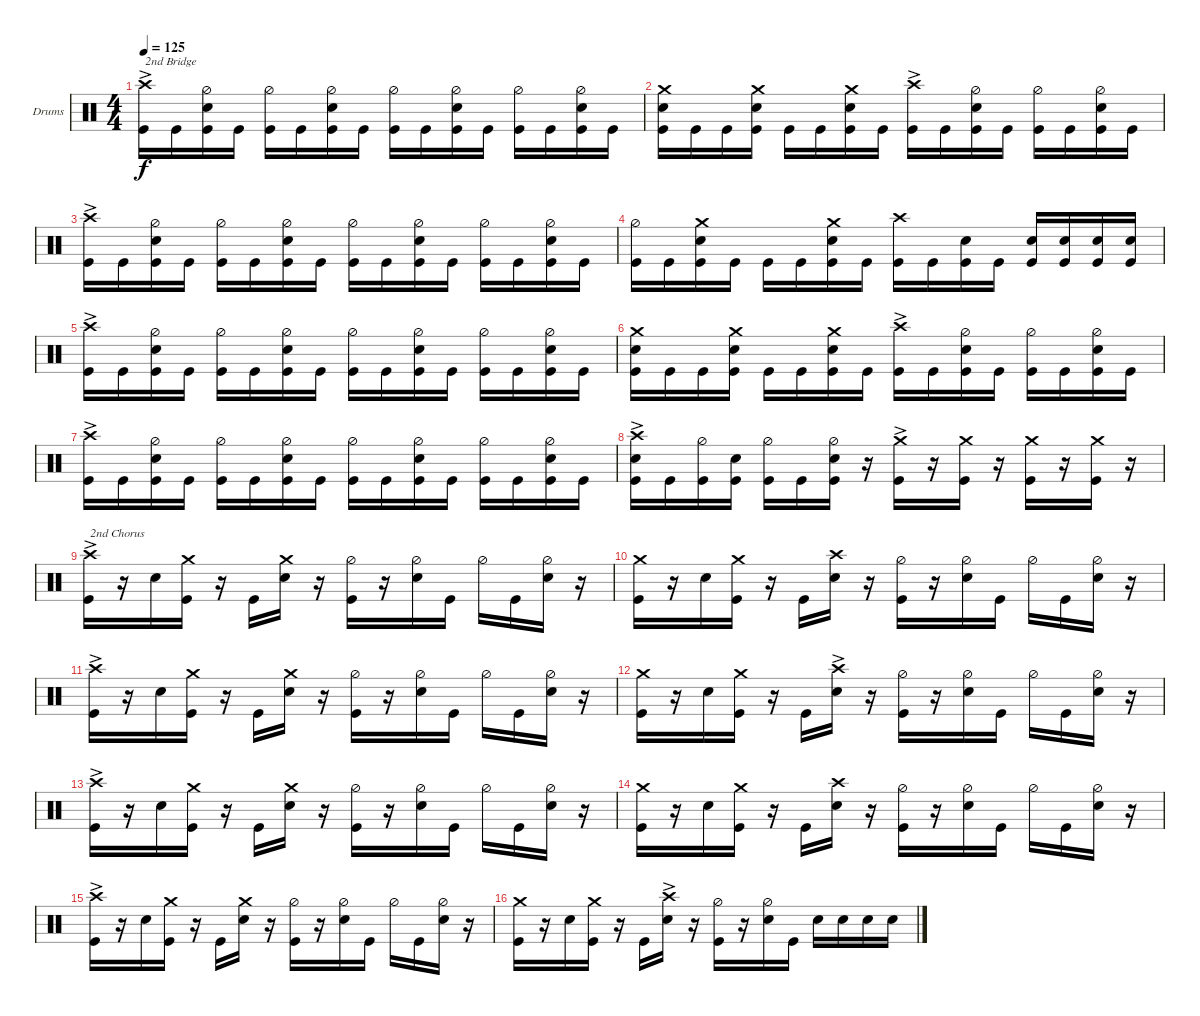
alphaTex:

\defaultSystemsLayout 4
\bracketExtendMode groupsimilarinstruments
\firstSystemTrackNameOrientation horizontal
\otherSystemsTrackNameOrientation horizontal
\track ("Lorenzo Milani" "Drums") {instrument percussion}
\staff {score}
\articulation defaults
\ts (4 4)
\tempo 125
\clef neutral
\ks c
("Kick (hit)"{ac} "Crash high (hit)"{ac}).16{txt "2nd Bridge" dy f} "Kick (hit)".16 ("Kick (hit)" "Snare (hit) 2" "Hi-Hat (half)").16 "Kick (hit)".16 ("Kick (hit)" "Hi-Hat (half)").16 "Kick (hit)".16 ("Kick (hit)" "Snare (hit) 2" "Hi-Hat (half)").16 "Kick (hit)".16 ("Kick (hit)" "Hi-Hat (half)").16 "Kick (hit)".16 ("Kick (hit)" "Snare (hit) 2" "Hi-Hat (half)").16 "Kick (hit)".16 ("Kick (hit)" "Hi-Hat (half)").16 "Kick (hit)".16 ("Kick (hit)" "Snare (hit) 2" "Hi-Hat (half)").16 "Kick (hit)".16 |
("Kick (hit)" "Crash medium (hit)" "Snare (hit) 2").16 "Kick (hit)".16 "Kick (hit)".16 ("Kick (hit)" "Crash medium (hit)" "Snare (hit) 2").16 "Kick (hit)".16 "Kick (hit)".16 ("Kick (hit)" "Crash medium (hit)" "Snare (hit) 2").16 "Kick (hit)".16 ("Kick (hit)"{ac} "Crash high (hit)"{ac}).16 "Kick (hit)".16 ("Kick (hit)" "Snare (hit) 2" "Hi-Hat (half)").16 "Kick (hit)".16 ("Kick (hit)" "Hi-Hat (half)").16 "Kick (hit)".16 ("Kick (hit)" "Snare (hit) 2" "Hi-Hat (half)").16 "Kick (hit)".16 |
("Kick (hit)"{ac} "Crash high (hit)"{ac}).16 "Kick (hit)".16 ("Kick (hit)" "Snare (hit) 2" "Hi-Hat (half)").16 "Kick (hit)".16 ("Kick (hit)" "Hi-Hat (half)").16 "Kick (hit)".16 ("Kick (hit)" "Snare (hit) 2" "Hi-Hat (half)").16 "Kick (hit)".16 ("Kick (hit)" "Hi-Hat (half)").16 "Kick (hit)".16 ("Kick (hit)" "Snare (hit) 2" "Hi-Hat (half)").16 "Kick (hit)".16 ("Kick (hit)" "Hi-Hat (half)").16 "Kick (hit)".16 ("Kick (hit)" "Snare (hit) 2" "Hi-Hat (half)").16 "Kick (hit)".16 |
("Kick (hit)" "Hi-Hat (half)").16 "Kick (hit)".16 ("Kick (hit)" "Snare (hit) 2" "Crash medium (hit)").16 "Kick (hit)".16 "Kick (hit)".16 "Kick (hit)".16 ("Kick (hit)" "Snare (hit) 2" "Crash medium (hit)").16 "Kick (hit)".16 ("Kick (hit)" "Crash high (hit)").16 "Kick (hit)".16 ("Kick (hit)" "Snare (hit) 2").16 "Kick (hit)".16 ("Kick (hit)" "Snare (hit) 2").16 ("Kick (hit)" "Snare (hit) 2").16 ("Kick (hit)" "Snare (hit) 2").16 ("Kick (hit)" "Snare (hit) 2").16 |
("Kick (hit)"{ac} "Crash high (hit)"{ac}).16 "Kick (hit)".16 ("Kick (hit)" "Snare (hit) 2" "Hi-Hat (half)").16 "Kick (hit)".16 ("Kick (hit)" "Hi-Hat (half)").16 "Kick (hit)".16 ("Kick (hit)" "Snare (hit) 2" "Hi-Hat (half)").16 "Kick (hit)".16 ("Kick (hit)" "Hi-Hat (half)").16 "Kick (hit)".16 ("Kick (hit)" "Snare (hit) 2" "Hi-Hat (half)").16 "Kick (hit)".16 ("Kick (hit)" "Hi-Hat (half)").16 "Kick (hit)".16 ("Kick (hit)" "Snare (hit) 2" "Hi-Hat (half)").16 "Kick (hit)".16 |
("Kick (hit)" "Crash medium (hit)" "Snare (hit) 2").16 "Kick (hit)".16 "Kick (hit)".16 ("Kick (hit)" "Crash medium (hit)" "Snare (hit) 2").16 "Kick (hit)".16 "Kick (hit)".16 ("Kick (hit)" "Crash medium (hit)" "Snare (hit) 2").16 "Kick (hit)".16 ("Kick (hit)"{ac} "Crash high (hit)"{ac}).16 "Kick (hit)".16 ("Kick (hit)" "Snare (hit) 2" "Hi-Hat (half)").16 "Kick (hit)".16 ("Kick (hit)" "Hi-Hat (half)").16 "Kick (hit)".16 ("Kick (hit)" "Snare (hit) 2" "Hi-Hat (half)").16 "Kick (hit)".16 |
("Kick (hit)"{ac} "Crash high (hit)"{ac}).16 "Kick (hit)".16 ("Kick (hit)" "Snare (hit) 2" "Hi-Hat (half)").16 "Kick (hit)".16 ("Kick (hit)" "Hi-Hat (half)").16 "Kick (hit)".16 ("Kick (hit)" "Snare (hit) 2" "Hi-Hat (half)").16 "Kick (hit)".16 ("Kick (hit)" "Hi-Hat (half)").16 "Kick (hit)".16 ("Kick (hit)" "Snare (hit) 2" "Hi-Hat (half)").16 "Kick (hit)".16 ("Kick (hit)" "Hi-Hat (half)").16 "Kick (hit)".16 ("Kick (hit)" "Snare (hit) 2" "Hi-Hat (half)").16 "Kick (hit)".16 |
("Crash high (hit)"{ac} "Snare (hit) 2" "Kick (hit)").16 "Kick (hit)".16 ("Kick (hit)" "Hi-Hat (half)").16 ("Snare (hit) 2" "Kick (hit)").16 ("Kick (hit)" "Hi-Hat (half)").16 "Kick (hit)".16 ("Snare (hit) 2" "Hi-Hat (half)" "Kick (hit)").16 r.16 ("Kick (hit)"{ac} "Crash medium (hit)"{ac}).16 r.16 ("Kick (hit)" "Crash medium (hit)").16 r.16 ("Kick (hit)" "Crash medium (hit)").16 r.16 ("Kick (hit)" "Crash medium (hit)").16 r.16 |
("Kick (hit)"{ac} "Crash high (hit)"{ac}).16{txt "2nd Chorus"} r.16 "Snare (hit) 2".16 ("Kick (hit)" "Crash medium (hit)").16 r.16 "Kick (hit)".16 ("Snare (hit) 2" "Crash medium (hit)").16 r.16 ("Kick (hit)" "Hi-Hat (half)").16 r.16 ("Snare (hit) 2" "Hi-Hat (half)").16 "Kick (hit)".16 "Hi-Hat (half)".16 "Kick (hit)".16 ("Snare (hit) 2" "Hi-Hat (half)").16 r.16 |
("Kick (hit)" "Crash medium (hit)").16 r.16 "Snare (hit) 2".16 ("Kick (hit)" "Crash medium (hit)").16 r.16 "Kick (hit)".16 ("Snare (hit) 2" "Crash high (hit)").16 r.16 ("Kick (hit)" "Hi-Hat (half)").16 r.16 ("Snare (hit) 2" "Hi-Hat (half)").16 "Kick (hit)".16 "Hi-Hat (half)".16 "Kick (hit)".16 ("Snare (hit) 2" "Hi-Hat (half)").16 r.16 |
("Kick (hit)"{ac} "Crash high (hit)"{ac}).16 r.16 "Snare (hit) 2".16 ("Kick (hit)" "Crash medium (hit)").16 r.16 "Kick (hit)".16 ("Snare (hit) 2" "Crash medium (hit)").16 r.16 ("Kick (hit)" "Hi-Hat (half)").16 r.16 ("Snare (hit) 2" "Hi-Hat (half)").16 "Kick (hit)".16 "Hi-Hat (half)".16 "Kick (hit)".16 ("Snare (hit) 2" "Hi-Hat (half)").16 r.16 |
("Kick (hit)" "Crash medium (hit)").16 r.16 "Snare (hit) 2".16 ("Kick (hit)" "Crash medium (hit)").16 r.16 "Kick (hit)".16 ("Snare (hit) 2"{ac} "Crash high (hit)"{ac}).16 r.16 ("Kick (hit)" "Hi-Hat (half)").16 r.16 ("Snare (hit) 2" "Hi-Hat (half)").16 "Kick (hit)".16 "Hi-Hat (half)".16 "Kick (hit)".16 ("Snare (hit) 2" "Hi-Hat (half)").16 r.16 |
("Kick (hit)"{ac} "Crash high (hit)"{ac}).16 r.16 "Snare (hit) 2".16 ("Kick (hit)" "Crash medium (hit)").16 r.16 "Kick (hit)".16 ("Snare (hit) 2" "Crash medium (hit)").16 r.16 ("Kick (hit)" "Hi-Hat (half)").16 r.16 ("Snare (hit) 2" "Hi-Hat (half)").16 "Kick (hit)".16 "Hi-Hat (half)".16 "Kick (hit)".16 ("Snare (hit) 2" "Hi-Hat (half)").16 r.16 |
("Kick (hit)" "Crash medium (hit)").16 r.16 "Snare (hit) 2".16 ("Kick (hit)" "Crash medium (hit)").16 r.16 "Kick (hit)".16 ("Snare (hit) 2" "Crash high (hit)").16 r.16 ("Kick (hit)" "Hi-Hat (half)").16 r.16 ("Snare (hit) 2" "Hi-Hat (half)").16 "Kick (hit)".16 "Hi-Hat (half)".16 "Kick (hit)".16 ("Snare (hit) 2" "Hi-Hat (half)").16 r.16 |
("Kick (hit)"{ac} "Crash high (hit)"{ac}).16 r.16 "Snare (hit) 2".16 ("Kick (hit)" "Crash medium (hit)").16 r.16 "Kick (hit)".16 ("Snare (hit) 2" "Crash medium (hit)").16 r.16 ("Kick (hit)" "Hi-Hat (half)").16 r.16 ("Snare (hit) 2" "Hi-Hat (half)").16 "Kick (hit)".16 "Hi-Hat (half)".16 "Kick (hit)".16 ("Snare (hit) 2" "Hi-Hat (half)").16 r.16 |
("Kick (hit)" "Crash medium (hit)").16 r.16 "Snare (hit) 2".16 ("Kick (hit)" "Crash medium (hit)").16 r.16 "Kick (hit)".16 ("Snare (hit) 2"{ac} "Crash high (hit)"{ac}).16 r.16 ("Kick (hit)" "Hi-Hat (half)").16 r.16 ("Snare (hit) 2" "Hi-Hat (half)").16 "Kick (hit)".16 "Snare (hit) 2".16 "Snare (hit) 2".16 "Snare (hit) 2".16 "Snare (hit) 2".16
